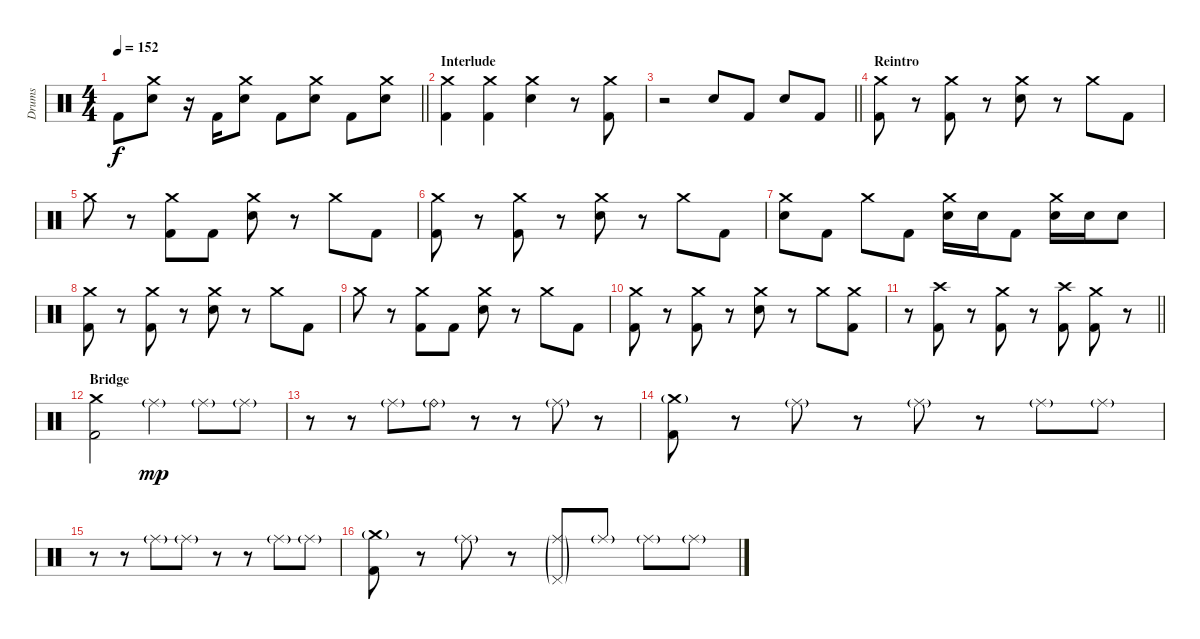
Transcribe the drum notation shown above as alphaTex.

\track ("Drums" "Drums") {instrument percussion}
\staff
\articulation defaults
\ts (4 4)
\tempo 152
\clef neutral
\barLineRight lightlight
\ks c "Kick (hit) 2".8{dy f}
("Crash medium (hit)" "Electric Snare (hit)").8 r.16 "Kick (hit) 2".16 ("Crash medium (hit)" "Electric Snare (hit)").8 "Kick (hit) 2".8 ("Crash medium (hit)" "Electric Snare (hit)").8 "Kick (hit) 2".8 ("Crash medium (hit)" "Electric Snare (hit)").8 |
\section ("" "Interlude")
("Crash medium (hit)" "Kick (hit) 2").4 ("Crash medium (hit)" "Kick (hit) 2").4 ("Crash medium (hit)" "Electric Snare (hit)").4 r.8 ("Crash medium (hit)" "Kick (hit) 2").8 |
\barLineRight lightlight
r.2 "Electric Snare (hit)".8 "Kick (hit) 2".8 "Electric Snare (hit)".8 "Kick (hit) 2".8 |
\section ("" "Reintro")
("Crash medium (hit)" "Kick (hit) 2").8 r.8 ("Crash medium (hit)" "Kick (hit) 2").8 r.8 ("Crash medium (hit)" "Electric Snare (hit)").8 r.8 "Crash medium (hit)".8 "Kick (hit) 2".8 |
"Crash medium (hit)".8 r.8 ("Crash medium (hit)" "Kick (hit) 2").8 "Kick (hit) 2".8 ("Crash medium (hit)" "Electric Snare (hit)").8 r.8 "Crash medium (hit)".8 "Kick (hit) 2".8 |
("Crash medium (hit)" "Kick (hit) 2").8 r.8 ("Crash medium (hit)" "Kick (hit) 2").8 r.8 ("Crash medium (hit)" "Electric Snare (hit)").8 r.8 "Crash medium (hit)".8 "Kick (hit) 2".8 |
("Crash medium (hit)" "Electric Snare (hit)").8 "Kick (hit) 2".8 "Crash medium (hit)".8 "Kick (hit) 2".8 ("Crash medium (hit)" "Electric Snare (hit)").16 "Electric Snare (hit)".16 "Kick (hit) 2".8 ("Crash medium (hit)" "Electric Snare (hit)").16 "Electric Snare (hit)".16 "Electric Snare (hit)".8 |
("Crash medium (hit)" "Kick (hit) 2").8 r.8 ("Crash medium (hit)" "Kick (hit) 2").8 r.8 ("Crash medium (hit)" "Electric Snare (hit)").8 r.8 "Crash medium (hit)".8 "Kick (hit) 2".8 |
"Crash medium (hit)".8 r.8 ("Crash medium (hit)" "Kick (hit) 2").8 "Kick (hit) 2".8 ("Crash medium (hit)" "Electric Snare (hit)").8 r.8 "Crash medium (hit)".8 "Kick (hit) 2".8 |
("Crash medium (hit)" "Kick (hit) 2").8 r.8 ("Crash medium (hit)" "Kick (hit) 2").8 r.8 ("Crash medium (hit)" "Electric Snare (hit)").8 r.8 "Crash medium (hit)".8 ("Crash medium (hit)" "Kick (hit) 2").8 |
\barLineRight lightlight
r.8 ("Crash high (hit)" "Kick (hit) 2").8 r.8 ("Crash medium (hit)" "Kick (hit) 2").8 r.8 ("Crash high (hit)" "Kick (hit) 2").8 ("Crash medium (hit)" "Kick (hit) 2").8 r.8 |
\section ("" "Bridge")
("Crash medium (hit)" "Kick (hit) 2").2 "Ride (middle)"{g}.4{dy mp} "Ride (middle)"{g}.8 "Ride (middle)"{g}.8 |
r.8 r.8 "Ride (middle)"{g}.8 "Ride (bell)"{g}.8 r.8 r.8 "Ride (middle)"{g}.8 r.8 |
("Crash medium (hit)"{g} "Kick (hit) 2").8 r.8 "Ride (middle)"{g}.8 r.8 "Ride (middle)"{g}.8 r.8 "Ride (middle)"{g}.8 "Ride (middle)"{g}.8 |
r.8 r.8 "Ride (middle)"{g}.8 "Ride (middle)"{g}.8 r.8 r.8 "Ride (middle)"{g}.8 "Ride (middle)"{g}.8 |
("Crash medium (hit)"{g} "Kick (hit) 2").8 r.8 "Ride (middle)"{g}.8 r.8 ("Ride (middle)"{g} "Pedal Hi-Hat (hit)"{g}).8 "Ride (middle)"{g}.8 "Ride (middle)"{g}.8 "Ride (middle)"{g}.8
